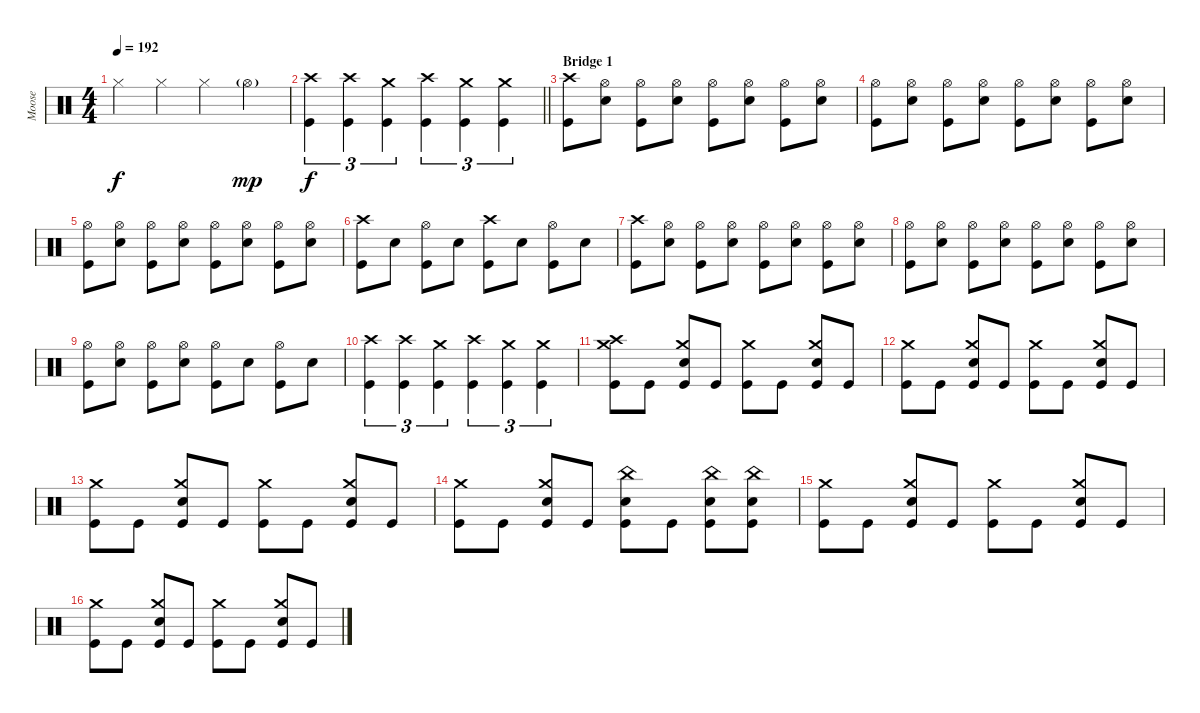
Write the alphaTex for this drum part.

\track ("Moose" "Moose") {instrument percussion}
\staff {score}
\articulation defaults
\ts (4 4)
\tempo 192
\clef neutral
\ks c "Hi-Hat (closed)".4{dy f} "Hi-Hat (closed)".4 "Hi-Hat (closed)".4 "Hi-Hat (open)"{g}.4{dy mp}
|
\barLineRight lightlight
("Crash high (hit)" "Kick (hit)").4{tu (3 2) dy f} ("Crash high (hit)" "Kick (hit)").4{tu (3 2)} ("Crash medium (hit)" "Kick (hit)").4{tu (3 2)} ("Crash high (hit)" "Kick (hit)").4{tu (3 2)} ("Crash medium (hit)" "Kick (hit)").4{tu (3 2)} ("Crash medium (hit)" "Kick (hit)").4{tu (3 2)} |
\section ("" "Bridge 1")
("Crash high (hit)" "Kick (hit)").8 ("Hi-Hat (open)" "Electric Snare (hit)").8 ("Hi-Hat (open)" "Kick (hit)").8 ("Hi-Hat (open)" "Electric Snare (hit)").8 ("Hi-Hat (open)" "Kick (hit)").8 ("Hi-Hat (open)" "Electric Snare (hit)").8 ("Hi-Hat (open)" "Kick (hit)").8 ("Hi-Hat (open)" "Electric Snare (hit)").8 |
("Hi-Hat (open)" "Kick (hit)").8 ("Hi-Hat (open)" "Electric Snare (hit)").8 ("Hi-Hat (open)" "Kick (hit)").8 ("Hi-Hat (open)" "Electric Snare (hit)").8 ("Hi-Hat (open)" "Kick (hit)").8 ("Hi-Hat (open)" "Electric Snare (hit)").8 ("Hi-Hat (open)" "Kick (hit)").8 ("Hi-Hat (open)" "Electric Snare (hit)").8 |
("Hi-Hat (open)" "Kick (hit)").8 ("Hi-Hat (open)" "Electric Snare (hit)").8 ("Hi-Hat (open)" "Kick (hit)").8 ("Hi-Hat (open)" "Electric Snare (hit)").8 ("Hi-Hat (open)" "Kick (hit)").8 ("Hi-Hat (open)" "Electric Snare (hit)").8 ("Hi-Hat (open)" "Kick (hit)").8 ("Hi-Hat (open)" "Electric Snare (hit)").8 |
("Crash high (hit)" "Kick (hit)").8 "Electric Snare (hit)".8 ("Hi-Hat (open)" "Kick (hit)").8 "Electric Snare (hit)".8 ("Crash high (hit)" "Kick (hit)").8 "Electric Snare (hit)".8 ("Hi-Hat (open)" "Kick (hit)").8 "Electric Snare (hit)".8 |
("Crash high (hit)" "Kick (hit)").8 ("Hi-Hat (open)" "Electric Snare (hit)").8 ("Hi-Hat (open)" "Kick (hit)").8 ("Hi-Hat (open)" "Electric Snare (hit)").8 ("Hi-Hat (open)" "Kick (hit)").8 ("Hi-Hat (open)" "Electric Snare (hit)").8 ("Hi-Hat (open)" "Kick (hit)").8 ("Hi-Hat (open)" "Electric Snare (hit)").8 |
("Hi-Hat (open)" "Kick (hit)").8 ("Hi-Hat (open)" "Electric Snare (hit)").8 ("Hi-Hat (open)" "Kick (hit)").8 ("Hi-Hat (open)" "Electric Snare (hit)").8 ("Hi-Hat (open)" "Kick (hit)").8 ("Hi-Hat (open)" "Electric Snare (hit)").8 ("Hi-Hat (open)" "Kick (hit)").8 ("Hi-Hat (open)" "Electric Snare (hit)").8 |
("Hi-Hat (open)" "Kick (hit)").8 ("Hi-Hat (open)" "Electric Snare (hit)").8 ("Hi-Hat (open)" "Kick (hit)").8 ("Hi-Hat (open)" "Electric Snare (hit)").8 ("Hi-Hat (open)" "Kick (hit)").8 "Electric Snare (hit)".8 ("Hi-Hat (open)" "Kick (hit)").8 "Electric Snare (hit)".8 |
("Crash high (hit)" "Kick (hit)").4{tu (3 2)} ("Crash high (hit)" "Kick (hit)").4{tu (3 2)} ("Crash medium (hit)" "Kick (hit)").4{tu (3 2)} ("Crash high (hit)" "Kick (hit)").4{tu (3 2)} ("Crash medium (hit)" "Kick (hit)").4{tu (3 2)} ("Crash medium (hit)" "Kick (hit)").4{tu (3 2)} |
("Crash high (hit)" "Crash medium (hit)" "Kick (hit)").8 "Kick (hit)".8 ("Crash medium (hit)" "Electric Snare (hit)" "Kick (hit)").8 "Kick (hit)".8 ("Crash medium (hit)" "Kick (hit)").8 "Kick (hit)".8 ("Crash medium (hit)" "Electric Snare (hit)" "Kick (hit)").8 "Kick (hit)".8 |
("Crash medium (hit)" "Kick (hit)").8 "Kick (hit)".8 ("Crash medium (hit)" "Electric Snare (hit)" "Kick (hit)").8 "Kick (hit)".8 ("Crash medium (hit)" "Kick (hit)").8 "Kick (hit)".8 ("Crash medium (hit)" "Electric Snare (hit)" "Kick (hit)").8 "Kick (hit)".8 |
("Crash medium (hit)" "Kick (hit)").8 "Kick (hit)".8 ("Crash medium (hit)" "Electric Snare (hit)" "Kick (hit)").8 "Kick (hit)".8 ("Crash medium (hit)" "Kick (hit)").8 "Kick (hit)".8 ("Crash medium (hit)" "Electric Snare (hit)" "Kick (hit)").8 "Kick (hit)".8 |
("Crash medium (hit)" "Kick (hit)").8 "Kick (hit)".8 ("Crash medium (hit)" "Electric Snare (hit)" "Kick (hit)").8 "Kick (hit)".8 ("China (hit)" "Electric Snare (hit)" "Kick (hit)").8 "Kick (hit)".8 ("China (hit)" "Electric Snare (hit)" "Kick (hit)").8 ("China (hit)" "Electric Snare (hit)" "Kick (hit)").8 |
("Crash medium (hit)" "Kick (hit)").8 "Kick (hit)".8 ("Crash medium (hit)" "Electric Snare (hit)" "Kick (hit)").8 "Kick (hit)".8 ("Crash medium (hit)" "Kick (hit)").8 "Kick (hit)".8 ("Crash medium (hit)" "Electric Snare (hit)" "Kick (hit)").8 "Kick (hit)".8 |
("Crash medium (hit)" "Kick (hit)").8 "Kick (hit)".8 ("Crash medium (hit)" "Electric Snare (hit)" "Kick (hit)").8 "Kick (hit)".8 ("Crash medium (hit)" "Kick (hit)").8 "Kick (hit)".8 ("Crash medium (hit)" "Electric Snare (hit)" "Kick (hit)").8 "Kick (hit)".8
